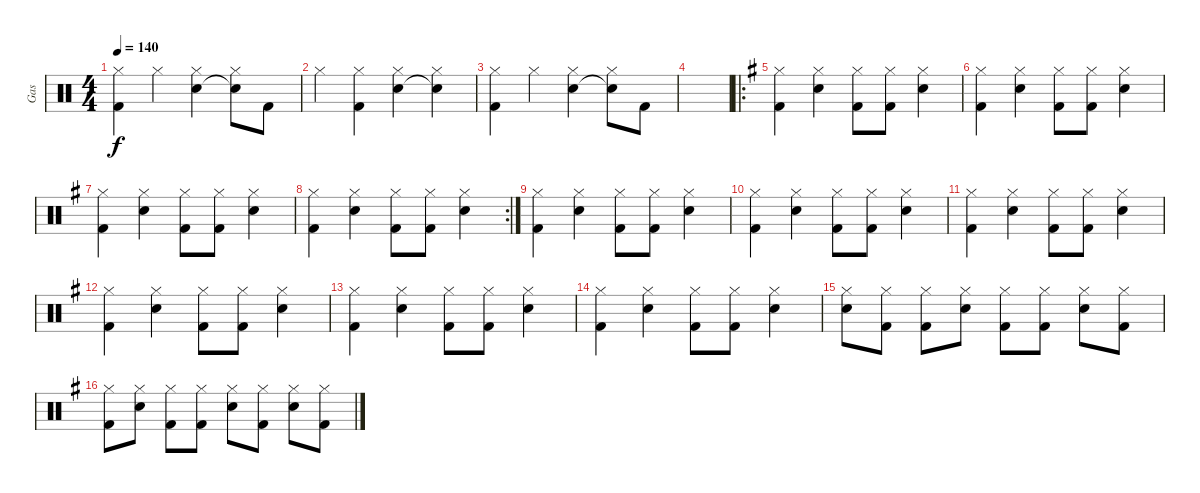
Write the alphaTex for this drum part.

\track ("Gas" "Gas") {instrument percussion}
\staff {score}
\articulation defaults
\ts (4 4)
\tempo 140
\clef neutral
\ks c
("Hi-Hat (closed)" "Kick (hit) 2").4{dy f} "Hi-Hat (closed)".4 ("Hi-Hat (closed)" "Electric Snare (hit)").4 ("Hi-Hat (closed)" "Snare (hit)"{t}).8 "Kick (hit) 2".8 |
"Hi-Hat (closed)".4 ("Hi-Hat (closed)" "Kick (hit) 2").4 ("Hi-Hat (closed)" "Electric Snare (hit)").4 ("Hi-Hat (closed)" "Snare (hit)"{t}).4 |
("Hi-Hat (closed)" "Kick (hit) 2").4 "Hi-Hat (closed)".4 ("Hi-Hat (closed)" "Electric Snare (hit)").4 ("Hi-Hat (closed)" "Snare (hit)"{t}).8 "Kick (hit) 2".8 |
|
\ro
\ks eminor
("Hi-Hat (closed)" "Kick (hit) 2").4 ("Hi-Hat (closed)" "Electric Snare (hit)").4 ("Hi-Hat (closed)" "Kick (hit) 2").8 ("Hi-Hat (closed)" "Kick (hit) 2").8 ("Hi-Hat (closed)" "Electric Snare (hit)").4 |
("Hi-Hat (closed)" "Kick (hit) 2").4 ("Hi-Hat (closed)" "Electric Snare (hit)").4 ("Hi-Hat (closed)" "Kick (hit) 2").8 ("Hi-Hat (closed)" "Kick (hit) 2").8 ("Hi-Hat (closed)" "Electric Snare (hit)").4 |
("Hi-Hat (closed)" "Kick (hit) 2").4 ("Hi-Hat (closed)" "Electric Snare (hit)").4 ("Hi-Hat (closed)" "Kick (hit) 2").8 ("Hi-Hat (closed)" "Kick (hit) 2").8 ("Hi-Hat (closed)" "Electric Snare (hit)").4 |
\rc 2
("Hi-Hat (closed)" "Kick (hit) 2").4 ("Hi-Hat (closed)" "Electric Snare (hit)").4 ("Hi-Hat (closed)" "Kick (hit) 2").8 ("Hi-Hat (closed)" "Kick (hit) 2").8 ("Hi-Hat (closed)" "Electric Snare (hit)").4 |
("Hi-Hat (closed)" "Kick (hit) 2").4 ("Hi-Hat (closed)" "Electric Snare (hit)").4 ("Hi-Hat (closed)" "Kick (hit) 2").8 ("Hi-Hat (closed)" "Kick (hit) 2").8 ("Hi-Hat (closed)" "Electric Snare (hit)").4 |
("Hi-Hat (closed)" "Kick (hit) 2").4 ("Hi-Hat (closed)" "Electric Snare (hit)").4 ("Hi-Hat (closed)" "Kick (hit) 2").8 ("Hi-Hat (closed)" "Kick (hit) 2").8 ("Hi-Hat (closed)" "Electric Snare (hit)").4 |
("Hi-Hat (closed)" "Kick (hit) 2").4 ("Hi-Hat (closed)" "Electric Snare (hit)").4 ("Hi-Hat (closed)" "Kick (hit) 2").8 ("Hi-Hat (closed)" "Kick (hit) 2").8 ("Hi-Hat (closed)" "Electric Snare (hit)").4 |
("Hi-Hat (closed)" "Kick (hit) 2").4 ("Hi-Hat (closed)" "Electric Snare (hit)").4 ("Hi-Hat (closed)" "Kick (hit) 2").8 ("Hi-Hat (closed)" "Kick (hit) 2").8 ("Hi-Hat (closed)" "Electric Snare (hit)").4 |
("Hi-Hat (closed)" "Kick (hit) 2").4 ("Hi-Hat (closed)" "Electric Snare (hit)").4 ("Hi-Hat (closed)" "Kick (hit) 2").8 ("Hi-Hat (closed)" "Kick (hit) 2").8 ("Hi-Hat (closed)" "Electric Snare (hit)").4 |
("Hi-Hat (closed)" "Kick (hit) 2").4 ("Hi-Hat (closed)" "Electric Snare (hit)").4 ("Hi-Hat (closed)" "Kick (hit) 2").8 ("Hi-Hat (closed)" "Kick (hit) 2").8 ("Hi-Hat (closed)" "Electric Snare (hit)").4 |
("Hi-Hat (closed)" "Electric Snare (hit)").8 ("Hi-Hat (closed)" "Kick (hit) 2").8 ("Hi-Hat (closed)" "Kick (hit) 2").8 ("Hi-Hat (closed)" "Electric Snare (hit)").8 ("Hi-Hat (closed)" "Kick (hit) 2").8 ("Hi-Hat (closed)" "Kick (hit) 2").8 ("Hi-Hat (closed)" "Electric Snare (hit)").8 ("Hi-Hat (closed)" "Kick (hit) 2").8 |
("Hi-Hat (closed)" "Kick (hit) 2").8 ("Hi-Hat (closed)" "Electric Snare (hit)").8 ("Hi-Hat (closed)" "Kick (hit) 2").8 ("Hi-Hat (closed)" "Kick (hit) 2").8 ("Hi-Hat (closed)" "Electric Snare (hit)").8 ("Hi-Hat (closed)" "Kick (hit) 2").8 ("Hi-Hat (closed)" "Electric Snare (hit)").8 ("Hi-Hat (closed)" "Kick (hit) 2").8
